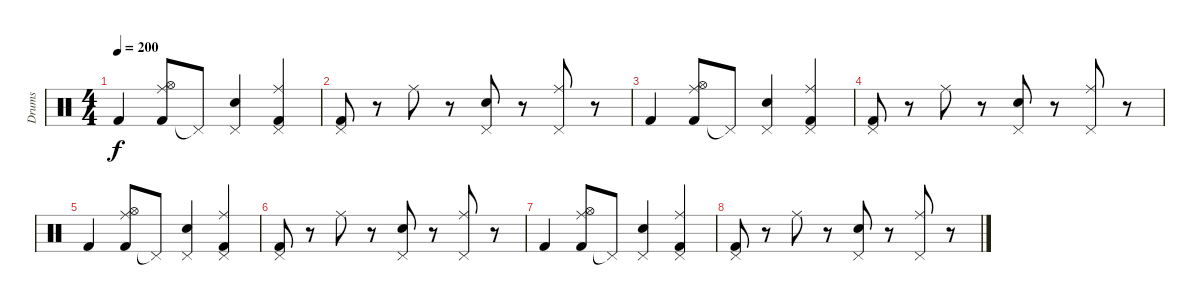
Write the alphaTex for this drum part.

\track ("Drums" "Drums") {instrument percussion}
\staff {score}
\articulation defaults
\ts (4 4)
\tempo 200
\clef neutral
\ks c "Kick (hit) 2".4{dy f}
("Kick (hit) 2" "Hi-Hat (open)" "Ride (middle)").8 "Pedal Hi-Hat (hit)"{t}.8 ("Electric Snare (hit)" "Pedal Hi-Hat (hit)").4 ("Kick (hit) 2" "Pedal Hi-Hat (hit)" "Ride (middle)").4 |
("Kick (hit) 2" "Pedal Hi-Hat (hit)").8 r.8 "Ride (middle)".8 r.8 ("Electric Snare (hit)" "Pedal Hi-Hat (hit)").8 r.8 ("Ride (middle)" "Pedal Hi-Hat (hit)").8 r.8 |
"Kick (hit) 2".4 ("Kick (hit) 2" "Hi-Hat (open)" "Ride (middle)").8 "Pedal Hi-Hat (hit)"{t}.8 ("Electric Snare (hit)" "Pedal Hi-Hat (hit)").4 ("Kick (hit) 2" "Pedal Hi-Hat (hit)" "Ride (middle)").4 |
("Kick (hit) 2" "Pedal Hi-Hat (hit)").8 r.8 "Ride (middle)".8 r.8 ("Electric Snare (hit)" "Pedal Hi-Hat (hit)").8 r.8 ("Ride (middle)" "Pedal Hi-Hat (hit)").8 r.8 |
"Kick (hit) 2".4{volume 10} ("Kick (hit) 2" "Hi-Hat (open)" "Ride (middle)").8 "Pedal Hi-Hat (hit)"{t}.8 ("Electric Snare (hit)" "Pedal Hi-Hat (hit)").4 ("Kick (hit) 2" "Pedal Hi-Hat (hit)" "Ride (middle)").4 |
("Kick (hit) 2" "Pedal Hi-Hat (hit)").8 r.8 "Ride (middle)".8 r.8 ("Electric Snare (hit)" "Pedal Hi-Hat (hit)").8 r.8 ("Ride (middle)" "Pedal Hi-Hat (hit)").8 r.8 |
"Kick (hit) 2".4{volume 0} ("Kick (hit) 2" "Hi-Hat (open)" "Ride (middle)").8 "Pedal Hi-Hat (hit)"{t}.8 ("Electric Snare (hit)" "Pedal Hi-Hat (hit)").4 ("Kick (hit) 2" "Pedal Hi-Hat (hit)" "Ride (middle)").4 |
("Kick (hit) 2" "Pedal Hi-Hat (hit)").8 r.8 "Ride (middle)".8 r.8 ("Electric Snare (hit)" "Pedal Hi-Hat (hit)").8 r.8 ("Ride (middle)" "Pedal Hi-Hat (hit)").8 r.8
